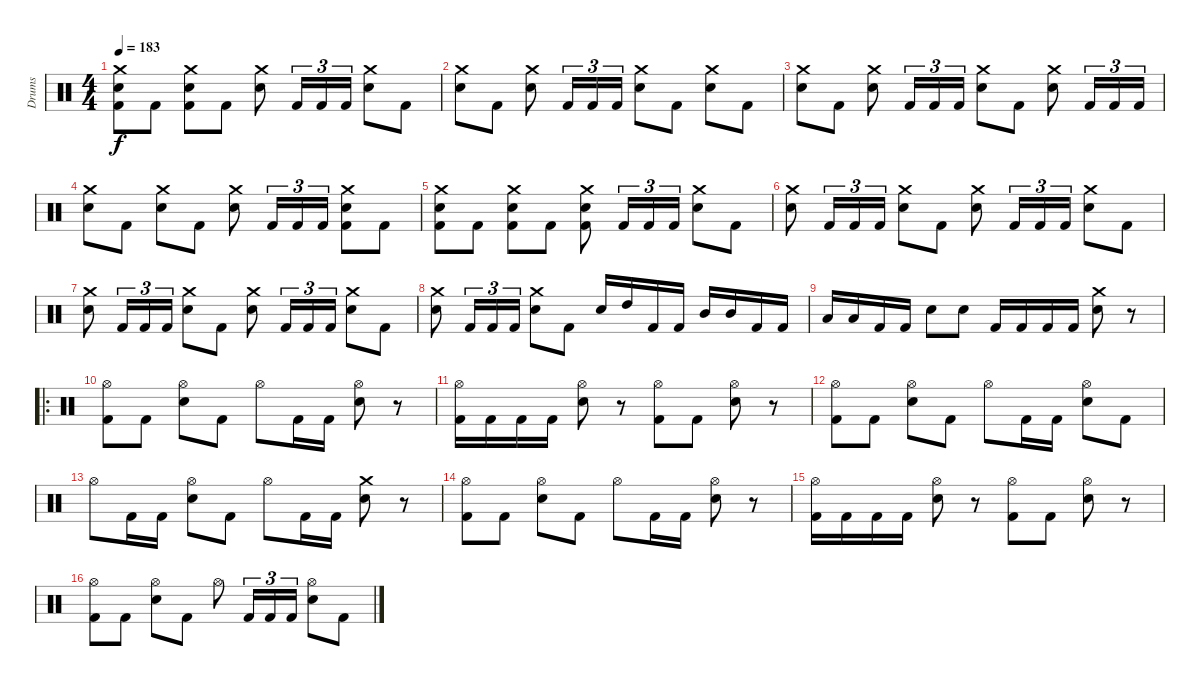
\track ("Drums" "Drums") {instrument percussion}
\staff {score}
\articulation defaults
\ts (4 4)
\tempo 183
\clef neutral
\ks c
("Kick (hit) 2" "Electric Snare (hit)" "Crash medium (hit)").8{dy f} "Kick (hit) 2".8 ("Kick (hit) 2" "Electric Snare (hit)" "Crash medium (hit)").8 "Kick (hit) 2".8 ("Electric Snare (hit)" "Crash medium (hit)").8 "Kick (hit) 2".16{tu (3 2)} "Kick (hit) 2".16{tu (3 2)} "Kick (hit) 2".16{tu (3 2)} ("Electric Snare (hit)" "Crash medium (hit)").8 "Kick (hit) 2".8 |
("Electric Snare (hit)" "Crash medium (hit)").8 "Kick (hit) 2".8 ("Electric Snare (hit)" "Crash medium (hit)").8 "Kick (hit) 2".16{tu (3 2)} "Kick (hit) 2".16{tu (3 2)} "Kick (hit) 2".16{tu (3 2)} ("Electric Snare (hit)" "Crash medium (hit)").8 "Kick (hit) 2".8 ("Electric Snare (hit)" "Crash medium (hit)").8 "Kick (hit) 2".8 |
("Electric Snare (hit)" "Crash medium (hit)").8 "Kick (hit) 2".8 ("Electric Snare (hit)" "Crash medium (hit)").8 "Kick (hit) 2".16{tu (3 2)} "Kick (hit) 2".16{tu (3 2)} "Kick (hit) 2".16{tu (3 2)} ("Electric Snare (hit)" "Crash medium (hit)").8 "Kick (hit) 2".8 ("Electric Snare (hit)" "Crash medium (hit)").8 "Kick (hit) 2".16{tu (3 2)} "Kick (hit) 2".16{tu (3 2)} "Kick (hit) 2".16{tu (3 2)} |
("Electric Snare (hit)" "Crash medium (hit)").8 "Kick (hit) 2".8 ("Electric Snare (hit)" "Crash medium (hit)").8 "Kick (hit) 2".8 ("Electric Snare (hit)" "Crash medium (hit)").8 "Kick (hit) 2".16{tu (3 2)} "Kick (hit) 2".16{tu (3 2)} "Kick (hit) 2".16{tu (3 2)} ("Kick (hit) 2" "Electric Snare (hit)" "Crash medium (hit)").8 "Kick (hit) 2".8 |
("Kick (hit) 2" "Electric Snare (hit)" "Crash medium (hit)").8 "Kick (hit) 2".8 ("Kick (hit) 2" "Electric Snare (hit)" "Crash medium (hit)").8 "Kick (hit) 2".8 ("Kick (hit) 2" "Electric Snare (hit)" "Crash medium (hit)").8 "Kick (hit) 2".16{tu (3 2)} "Kick (hit) 2".16{tu (3 2)} "Kick (hit) 2".16{tu (3 2)} ("Electric Snare (hit)" "Crash medium (hit)").8 "Kick (hit) 2".8 |
("Electric Snare (hit)" "Crash medium (hit)").8 "Kick (hit) 2".16{tu (3 2)} "Kick (hit) 2".16{tu (3 2)} "Kick (hit) 2".16{tu (3 2)} ("Electric Snare (hit)" "Crash medium (hit)").8 "Kick (hit) 2".8 ("Electric Snare (hit)" "Crash medium (hit)").8 "Kick (hit) 2".16{tu (3 2)} "Kick (hit) 2".16{tu (3 2)} "Kick (hit) 2".16{tu (3 2)} ("Electric Snare (hit)" "Crash medium (hit)").8 "Kick (hit) 2".8 |
("Electric Snare (hit)" "Crash medium (hit)").8 "Kick (hit) 2".16{tu (3 2)} "Kick (hit) 2".16{tu (3 2)} "Kick (hit) 2".16{tu (3 2)} ("Electric Snare (hit)" "Crash medium (hit)").8 "Kick (hit) 2".8 ("Electric Snare (hit)" "Crash medium (hit)").8 "Kick (hit) 2".16{tu (3 2)} "Kick (hit) 2".16{tu (3 2)} "Kick (hit) 2".16{tu (3 2)} ("Electric Snare (hit)" "Crash medium (hit)").8 "Kick (hit) 2".8 |
("Electric Snare (hit)" "Crash medium (hit)").8 "Kick (hit) 2".16{tu (3 2)} "Kick (hit) 2".16{tu (3 2)} "Kick (hit) 2".16{tu (3 2)} ("Electric Snare (hit)" "Crash medium (hit)").8 "Kick (hit) 2".8 "Electric Snare (hit)".16 "High Tom (hit)".16 "Kick (hit) 2".16 "Kick (hit) 2".16 "Mid Tom (hit)".16 "Mid Tom (hit)".16 "Kick (hit) 2".16 "Kick (hit) 2".16 |
"Low Tom (hit)".16 "Low Tom (hit)".16 "Kick (hit) 2".16 "Kick (hit) 2".16 "Electric Snare (hit)".8 "Electric Snare (hit)".8 "Kick (hit) 2".16 "Kick (hit) 2".16 "Kick (hit) 2".16 "Kick (hit) 2".16 ("Electric Snare (hit)" "Crash medium (hit)").8 r.8 |
\ro
("Kick (hit) 2" "Hi-Hat (open)").8 "Kick (hit) 2".8 ("Electric Snare (hit)" "Hi-Hat (open)").8 "Kick (hit) 2".8 "Hi-Hat (open)".8 "Kick (hit) 2".16 "Kick (hit) 2".16 ("Electric Snare (hit)" "Hi-Hat (open)").8 r.8 |
("Kick (hit) 2" "Hi-Hat (open)").16 "Kick (hit) 2".16 "Kick (hit) 2".16 "Kick (hit) 2".16 ("Electric Snare (hit)" "Hi-Hat (open)").8 r.8 ("Kick (hit) 2" "Hi-Hat (open)").8 "Kick (hit) 2".8 ("Electric Snare (hit)" "Hi-Hat (open)").8 r.8 |
("Kick (hit) 2" "Hi-Hat (open)").8 "Kick (hit) 2".8 ("Electric Snare (hit)" "Hi-Hat (open)").8 "Kick (hit) 2".8 "Hi-Hat (open)".8 "Kick (hit) 2".16 "Kick (hit) 2".16 ("Electric Snare (hit)" "Hi-Hat (open)").8 "Kick (hit) 2".8 |
"Hi-Hat (open)".8 "Kick (hit) 2".16 "Kick (hit) 2".16 ("Electric Snare (hit)" "Hi-Hat (open)").8 "Kick (hit) 2".8 "Hi-Hat (open)".8 "Kick (hit) 2".16 "Kick (hit) 2".16 ("Electric Snare (hit)" "Crash medium (hit)").8 r.8 |
("Kick (hit) 2" "Hi-Hat (open)").8 "Kick (hit) 2".8 ("Electric Snare (hit)" "Hi-Hat (open)").8 "Kick (hit) 2".8 "Hi-Hat (open)".8 "Kick (hit) 2".16 "Kick (hit) 2".16 ("Electric Snare (hit)" "Hi-Hat (open)").8 r.8 |
("Kick (hit) 2" "Hi-Hat (open)").16 "Kick (hit) 2".16 "Kick (hit) 2".16 "Kick (hit) 2".16 ("Electric Snare (hit)" "Hi-Hat (open)").8 r.8 ("Kick (hit) 2" "Hi-Hat (open)").8 "Kick (hit) 2".8 ("Electric Snare (hit)" "Hi-Hat (open)").8 r.8 |
("Kick (hit) 2" "Hi-Hat (open)").8 "Kick (hit) 2".8 ("Electric Snare (hit)" "Hi-Hat (open)").8 "Kick (hit) 2".8 "Hi-Hat (open)".8 "Kick (hit) 2".16{tu (3 2)} "Kick (hit) 2".16{tu (3 2)} "Kick (hit) 2".16{tu (3 2)} ("Electric Snare (hit)" "Hi-Hat (open)").8 "Kick (hit) 2".8
